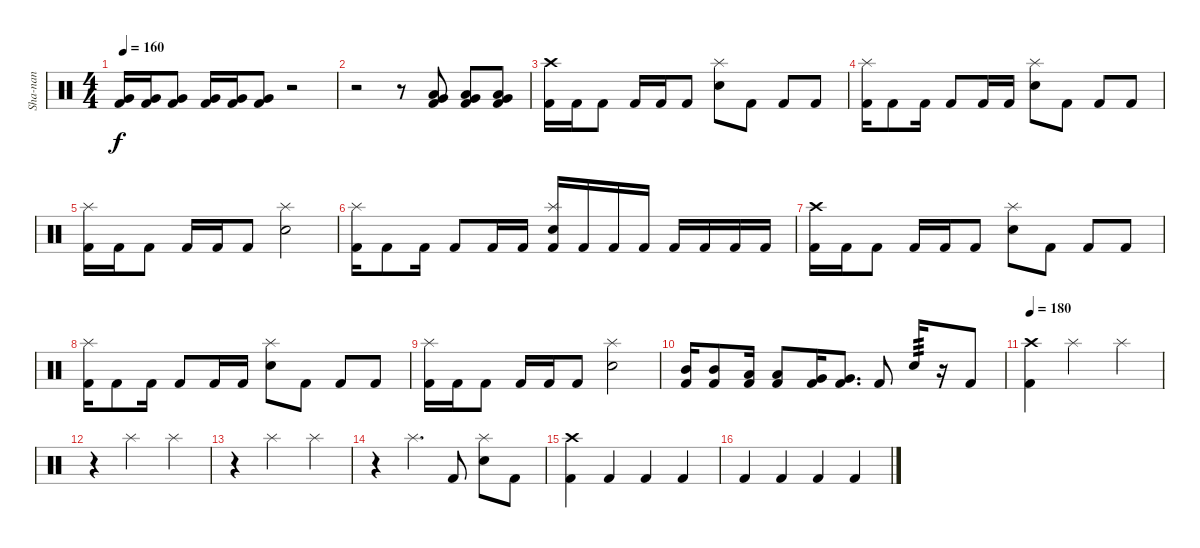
\track ("Sha-nan" "Sha-nan") {instrument percussion}
\staff {score}
\articulation defaults
\ts (4 4)
\tempo 160
\clef neutral
\ks c
("Very Low Tom (hit)" "Kick (hit) 2").16{dy f} ("Very Low Tom (hit)" "Kick (hit) 2").16 ("Very Low Tom (hit)" "Kick (hit) 2").8 ("Very Low Tom (hit)" "Kick (hit) 2").16 ("Very Low Tom (hit)" "Kick (hit) 2").16 ("Very Low Tom (hit)" "Kick (hit) 2").8 r.2 |
r.2 r.8 ("Low Tom (hit)" "Very Low Tom (hit)" "Kick (hit) 2").8 ("Low Tom (hit)" "Very Low Tom (hit)" "Kick (hit) 2").8 ("Low Tom (hit)" "Very Low Tom (hit)" "Kick (hit) 2").8 |
("Crash high (hit)" "Kick (hit) 2").16 "Kick (hit) 2".16 "Kick (hit) 2".8 "Kick (hit) 2".16 "Kick (hit) 2".16 "Kick (hit) 2".8 ("Splash (hit)" "Snare (hit) 2").8 "Kick (hit) 2".8 "Kick (hit) 2".8 "Kick (hit) 2".8 |
("Splash (hit)" "Kick (hit) 2").16 "Kick (hit) 2".8 "Kick (hit) 2".16 "Kick (hit) 2".8 "Kick (hit) 2".16 "Kick (hit) 2".16 ("Splash (hit)" "Snare (hit) 2").8 "Kick (hit) 2".8 "Kick (hit) 2".8 "Kick (hit) 2".8 |
("Splash (hit)" "Kick (hit) 2").16 "Kick (hit) 2".16 "Kick (hit) 2".8 "Kick (hit) 2".16 "Kick (hit) 2".16 "Kick (hit) 2".8 ("Splash (hit)" "Snare (hit) 2").2 |
("Splash (hit)" "Kick (hit) 2").16 "Kick (hit) 2".8 "Kick (hit) 2".16 "Kick (hit) 2".8 "Kick (hit) 2".16 "Kick (hit) 2".16 ("Splash (hit)" "Snare (hit) 2" "Kick (hit) 2").16 "Kick (hit) 2".16 "Kick (hit) 2".16 "Kick (hit) 2".16 "Kick (hit) 2".16 "Kick (hit) 2".16 "Kick (hit) 2".16 "Kick (hit) 2".16 |
("Crash high (hit)" "Kick (hit) 2").16 "Kick (hit) 2".16 "Kick (hit) 2".8 "Kick (hit) 2".16 "Kick (hit) 2".16 "Kick (hit) 2".8 ("Splash (hit)" "Snare (hit) 2").8 "Kick (hit) 2".8 "Kick (hit) 2".8 "Kick (hit) 2".8 |
("Splash (hit)" "Kick (hit) 2").16 "Kick (hit) 2".8 "Kick (hit) 2".16 "Kick (hit) 2".8 "Kick (hit) 2".16 "Kick (hit) 2".16 ("Splash (hit)" "Snare (hit) 2").8 "Kick (hit) 2".8 "Kick (hit) 2".8 "Kick (hit) 2".8 |
("Splash (hit)" "Kick (hit) 2").16 "Kick (hit) 2".16 "Kick (hit) 2".8 "Kick (hit) 2".16 "Kick (hit) 2".16 "Kick (hit) 2".8 ("Splash (hit)" "Snare (hit) 2").2 |
("Mid Tom (hit)" "Kick (hit) 2").16 ("Mid Tom (hit)" "Kick (hit) 2").8 ("Low Tom (hit)" "Kick (hit) 2").16 ("Low Tom (hit)" "Kick (hit) 2").8 ("Very Low Tom (hit)" "Kick (hit) 2").16 ("Very Low Tom (hit)" "Kick (hit) 2").8{d} "Kick (hit) 2".8 "Snare (hit) 2".16{tp 3} r.16 "Kick (hit) 2".8 |
\tempo 180
("Crash high (hit)" "Kick (hit) 2").4 "Splash (hit)".2 "Splash (hit)".4 |
r.4 "Splash (hit)".2 "Splash (hit)".4 |
r.4 "Splash (hit)".2 "Splash (hit)".4 |
r.4 "Splash (hit)".4{d} "Kick (hit) 2".8 ("Splash (hit)" "Snare (hit) 2").8 "Kick (hit) 2".8 |
("Crash high (hit)" "Kick (hit) 2").4 "Kick (hit) 2".4 "Kick (hit) 2".4 "Kick (hit) 2".4 |
"Kick (hit) 2".4 "Kick (hit) 2".4 "Kick (hit) 2".4 "Kick (hit) 2".4
